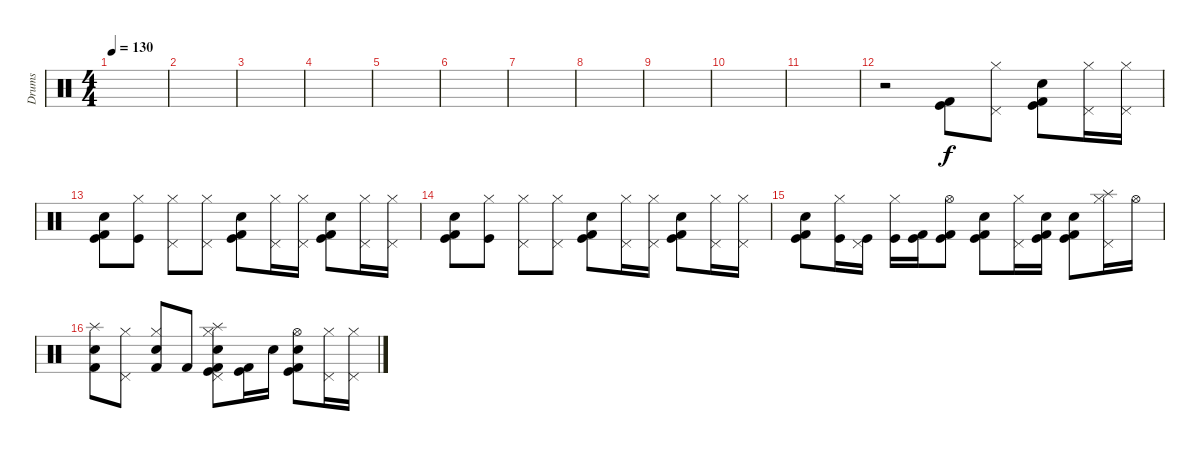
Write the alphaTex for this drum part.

\track ("Drums" "Drums") {instrument percussion}
\staff {score}
\articulation defaults
\ts (4 4)
\tempo 130
\clef neutral
\ks c
|
|
|
|
|
|
|
|
|
|
|
r.2 ("Kick (hit)" "Kick (hit) 2").8 ("Pedal Hi-Hat (hit)" "Hi-Hat (closed)").8 ("Kick (hit) 2" "Kick (hit)" "Snare (hit) 2").8 ("Pedal Hi-Hat (hit)" "Hi-Hat (closed)").16 ("Pedal Hi-Hat (hit)" "Hi-Hat (closed)").16 |
("Kick (hit) 2" "Kick (hit)" "Snare (hit) 2").8 ("Kick (hit)" "Hi-Hat (closed)").8 ("Pedal Hi-Hat (hit)" "Hi-Hat (closed)").8 ("Pedal Hi-Hat (hit)" "Hi-Hat (closed)").8 ("Kick (hit)" "Kick (hit) 2" "Snare (hit) 2").8 ("Pedal Hi-Hat (hit)" "Hi-Hat (closed)").16 ("Pedal Hi-Hat (hit)" "Hi-Hat (closed)").16 ("Kick (hit) 2" "Kick (hit)" "Snare (hit) 2").8 ("Pedal Hi-Hat (hit)" "Hi-Hat (closed)").16 ("Pedal Hi-Hat (hit)" "Hi-Hat (closed)").16 |
("Kick (hit) 2" "Kick (hit)" "Snare (hit) 2").8 ("Kick (hit)" "Hi-Hat (closed)").8 ("Pedal Hi-Hat (hit)" "Hi-Hat (closed)").8 ("Pedal Hi-Hat (hit)" "Hi-Hat (closed)").8 ("Kick (hit)" "Kick (hit) 2" "Snare (hit) 2").8 ("Pedal Hi-Hat (hit)" "Hi-Hat (closed)").16 ("Pedal Hi-Hat (hit)" "Hi-Hat (closed)").16 ("Kick (hit) 2" "Kick (hit)" "Snare (hit) 2").8 ("Pedal Hi-Hat (hit)" "Hi-Hat (closed)").16 ("Pedal Hi-Hat (hit)" "Hi-Hat (closed)").16 |
("Snare (hit) 2" "Kick (hit) 2" "Kick (hit)").8 ("Kick (hit)" "Hi-Hat (closed)").16 ("Kick (hit)" "Pedal Hi-Hat (hit)").16 ("Kick (hit)" "Hi-Hat (closed)").16 ("Kick (hit)" "Kick (hit) 2").16 ("Hi-Hat (open)" "Kick (hit) 2" "Kick (hit)").8 ("Kick (hit) 2" "Kick (hit)" "Snare (hit) 2").8 ("Pedal Hi-Hat (hit)" "Hi-Hat (closed)").16 ("Kick (hit) 2" "Kick (hit)" "Snare (hit) 2").16 ("Kick (hit) 2" "Kick (hit)" "Snare (hit) 2").8 ("Pedal Hi-Hat (hit)" "Hi-Hat (closed)" "Splash (hit)").16 "Hi-Hat (open)".16 |
("Kick (hit) 2" "Snare (hit) 2" "Splash (hit)").8 ("Pedal Hi-Hat (hit)" "Hi-Hat (closed)").8 ("Kick (hit) 2" "Hi-Hat (closed)" "Snare (hit) 2").8 "Kick (hit) 2".8 ("Pedal Hi-Hat (hit)" "Hi-Hat (closed)" "Splash (hit)" "Kick (hit) 2" "Kick (hit)" "Snare (hit) 2").8 ("Kick (hit) 2" "Kick (hit)").16 "Snare (hit) 2".16 ("Kick (hit) 2" "Kick (hit)" "Hi-Hat (open)" "Snare (hit) 2").8 ("Pedal Hi-Hat (hit)" "Hi-Hat (closed)").16 ("Pedal Hi-Hat (hit)" "Hi-Hat (closed)").16
